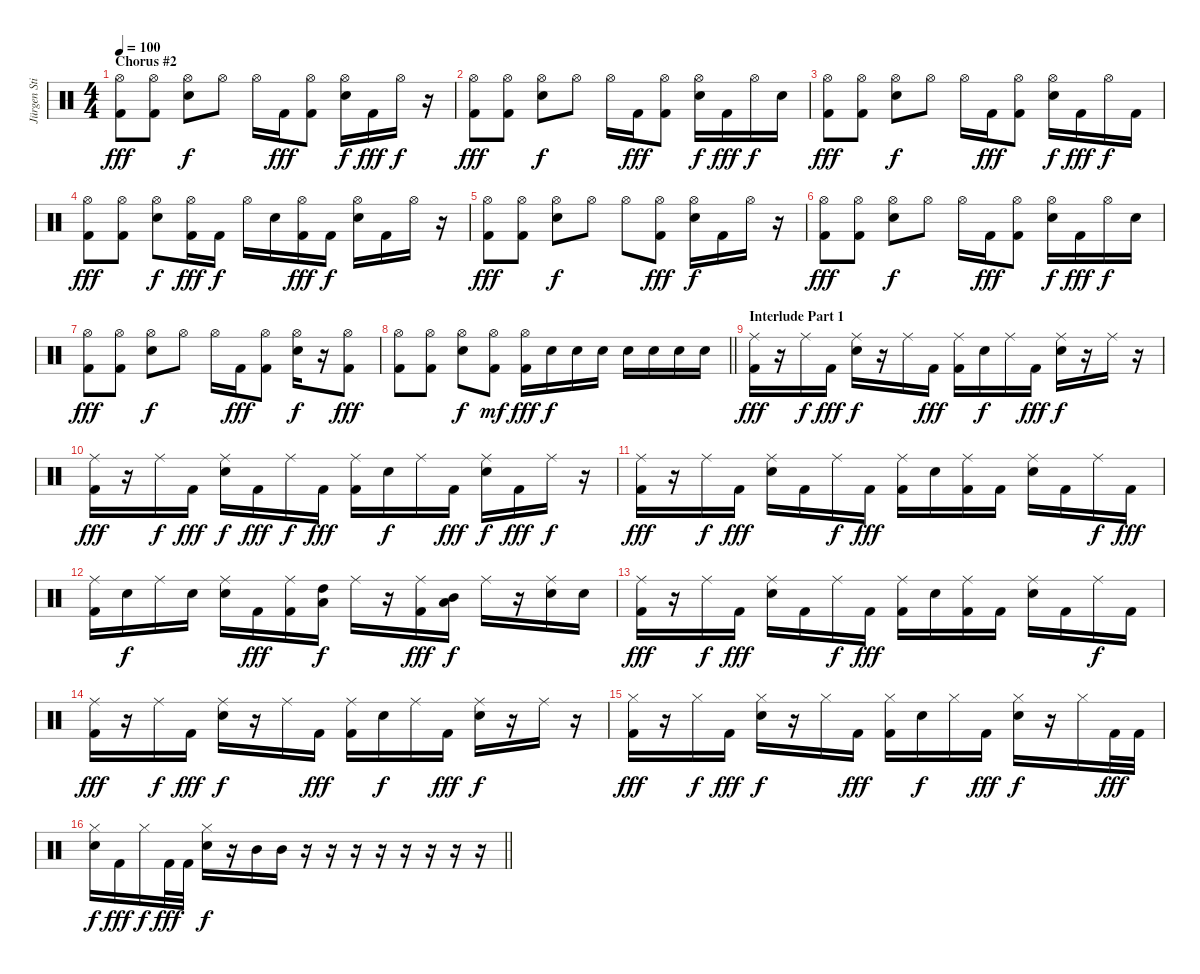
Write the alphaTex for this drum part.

\track ("Jürgen Stiehle" "Jürgen Sti") {instrument percussion}
\staff {score}
\articulation defaults
\ts (4 4)
\section ("" "Chorus #2")
\tempo 100
\clef neutral
\ks c
("Hi-Hat (open)" "Kick (hit) 2").8{dy fff} ("Hi-Hat (open)" "Kick (hit) 2").8 ("Hi-Hat (open)" "Electric Snare (hit)").8{dy f} "Hi-Hat (open)".8 "Hi-Hat (open)".16 "Kick (hit) 2".16{dy fff} ("Hi-Hat (open)" "Kick (hit) 2").8 ("Hi-Hat (open)" "Electric Snare (hit)").16{dy f} "Kick (hit) 2".16{dy fff} "Hi-Hat (open)".16{dy f} r.16 |
("Hi-Hat (open)" "Kick (hit) 2").8{dy fff} ("Hi-Hat (open)" "Kick (hit) 2").8 ("Hi-Hat (open)" "Electric Snare (hit)").8{dy f} "Hi-Hat (open)".8 "Hi-Hat (open)".16 "Kick (hit) 2".16{dy fff} ("Hi-Hat (open)" "Kick (hit) 2").8 ("Hi-Hat (open)" "Electric Snare (hit)").16{dy f} "Kick (hit) 2".16{dy fff} "Hi-Hat (open)".16{dy f} "Electric Snare (hit)".16 |
("Hi-Hat (open)" "Kick (hit) 2").8{dy fff} ("Hi-Hat (open)" "Kick (hit) 2").8 ("Hi-Hat (open)" "Electric Snare (hit)").8{dy f} "Hi-Hat (open)".8 "Hi-Hat (open)".16 "Kick (hit) 2".16{dy fff} ("Hi-Hat (open)" "Kick (hit) 2").8 ("Hi-Hat (open)" "Electric Snare (hit)").16{dy f} "Kick (hit) 2".16{dy fff} "Hi-Hat (open)".16{dy f} "Kick (hit) 2".16 |
("Hi-Hat (open)" "Kick (hit) 2").8{dy fff} ("Hi-Hat (open)" "Kick (hit) 2").8 ("Hi-Hat (open)" "Electric Snare (hit)").8{dy f} ("Hi-Hat (open)" "Kick (hit) 2").16{dy fff} "Kick (hit) 2".16{dy f} "Hi-Hat (open)".16 "Electric Snare (hit)".16 ("Hi-Hat (open)" "Kick (hit) 2").16{dy fff} "Kick (hit) 2".16{dy f} ("Hi-Hat (open)" "Electric Snare (hit)").16 "Kick (hit) 2".16 "Hi-Hat (open)".16 r.16 |
("Hi-Hat (open)" "Kick (hit) 2").8{dy fff} ("Hi-Hat (open)" "Kick (hit) 2").8 ("Hi-Hat (open)" "Electric Snare (hit)").8{dy f} "Hi-Hat (open)".8 "Hi-Hat (open)".8 ("Hi-Hat (open)" "Kick (hit) 2").8{dy fff} ("Hi-Hat (open)" "Electric Snare (hit)").16{dy f} "Kick (hit) 2".16 "Hi-Hat (open)".16 r.16 |
("Hi-Hat (open)" "Kick (hit) 2").8{dy fff} ("Hi-Hat (open)" "Kick (hit) 2").8 ("Hi-Hat (open)" "Electric Snare (hit)").8{dy f} "Hi-Hat (open)".8 "Hi-Hat (open)".16 "Kick (hit) 2".16{dy fff} ("Hi-Hat (open)" "Kick (hit) 2").8 ("Hi-Hat (open)" "Electric Snare (hit)").16{dy f} "Kick (hit) 2".16{dy fff} "Hi-Hat (open)".16{dy f} "Electric Snare (hit)".16 |
("Hi-Hat (open)" "Kick (hit) 2").8{dy fff} ("Hi-Hat (open)" "Kick (hit) 2").8 ("Hi-Hat (open)" "Electric Snare (hit)").8{dy f} "Hi-Hat (open)".8 "Hi-Hat (open)".16 "Kick (hit) 2".16{dy fff} ("Hi-Hat (open)" "Kick (hit) 2").8 ("Hi-Hat (open)" "Electric Snare (hit)").16{dy f} r.16 ("Hi-Hat (open)" "Kick (hit) 2").8{dy fff} |
\barLineRight lightlight
("Hi-Hat (open)" "Kick (hit) 2").8 ("Hi-Hat (open)" "Kick (hit) 2").8 ("Hi-Hat (open)" "Electric Snare (hit)").8{dy f} ("Hi-Hat (open)" "Kick (hit) 2").8{dy mf} ("Hi-Hat (open)" "Kick (hit) 2").16{dy fff} "Electric Snare (hit)".16{dy f} "Electric Snare (hit)".16 "Electric Snare (hit)".16 "Electric Snare (hit)".16 "Electric Snare (hit)".16 "Electric Snare (hit)".16 "Electric Snare (hit)".16 |
\section ("" "Interlude Part 1")
("Ride (middle)" "Kick (hit) 2").16{dy fff} r.16 "Ride (middle)".16{dy f} "Kick (hit) 2".16{dy fff} ("Ride (middle)" "Electric Snare (hit)").16{dy f} r.16 "Ride (middle)".16 "Kick (hit) 2".16{dy fff} ("Ride (middle)" "Kick (hit) 2").16 "Electric Snare (hit)".16{dy f} "Ride (middle)".16 "Kick (hit) 2".16{dy fff} ("Ride (middle)" "Electric Snare (hit)").16{dy f} r.16 "Ride (middle)".16 r.16 |
("Ride (middle)" "Kick (hit) 2").16{dy fff} r.16 "Ride (middle)".16{dy f} "Kick (hit) 2".16{dy fff} ("Ride (middle)" "Electric Snare (hit)").16{dy f} "Kick (hit) 2".16{dy fff} "Ride (middle)".16{dy f} "Kick (hit) 2".16{dy fff} ("Ride (middle)" "Kick (hit) 2").16 "Electric Snare (hit)".16{dy f} "Ride (middle)".16 "Kick (hit) 2".16{dy fff} ("Ride (middle)" "Electric Snare (hit)").16{dy f} "Kick (hit) 2".16{dy fff} "Ride (middle)".16{dy f} r.16 |
("Ride (middle)" "Kick (hit) 2").16{dy fff} r.16 "Ride (middle)".16{dy f} "Kick (hit) 2".16{dy fff} ("Ride (middle)" "Electric Snare (hit)").16 "Kick (hit) 2".16 "Ride (middle)".16{dy f} "Kick (hit) 2".16{dy fff} ("Ride (middle)" "Kick (hit) 2").16 "Electric Snare (hit)".16 ("Ride (middle)" "Kick (hit) 2").16 "Kick (hit) 2".16 ("Ride (middle)" "Electric Snare (hit)").16 "Kick (hit) 2".16 "Ride (middle)".16{dy f} "Kick (hit) 2".16{dy fff} |
("Ride (middle)" "Kick (hit) 2").16 "Electric Snare (hit)".16{dy f} "Ride (middle)".16 "Electric Snare (hit)".16 ("Ride (middle)" "Electric Snare (hit)").16 "Kick (hit) 2".16{dy fff} ("Ride (middle)" "Kick (hit) 2").16 ("High Tom (hit)" "Low Tom (hit)").16{dy f} "Ride (middle)".16 r.16 ("Ride (middle)" "Kick (hit) 2").16{dy fff} ("Mid Tom (hit)" "Low Tom (hit)").16{dy f} "Ride (middle)".16 r.16 ("Ride (middle)" "Electric Snare (hit)").16 "Electric Snare (hit)".16 |
("Ride (middle)" "Kick (hit) 2").16{dy fff} r.16 "Ride (middle)".16{dy f} "Kick (hit) 2".16{dy fff} ("Ride (middle)" "Electric Snare (hit)").16 "Kick (hit) 2".16 "Ride (middle)".16{dy f} "Kick (hit) 2".16{dy fff} ("Ride (middle)" "Kick (hit) 2").16 "Electric Snare (hit)".16 ("Ride (middle)" "Kick (hit) 2").16 "Kick (hit) 2".16 ("Ride (middle)" "Electric Snare (hit)").16 "Kick (hit) 2".16 "Ride (middle)".16{dy f} "Kick (hit) 2".16 |
("Ride (middle)" "Kick (hit) 2").16{dy fff} r.16 "Ride (middle)".16{dy f} "Kick (hit) 2".16{dy fff} ("Ride (middle)" "Electric Snare (hit)").16{dy f} r.16 "Ride (middle)".16 "Kick (hit) 2".16{dy fff} ("Ride (middle)" "Kick (hit) 2").16 "Electric Snare (hit)".16{dy f} "Ride (middle)".16 "Kick (hit) 2".16{dy fff} ("Ride (middle)" "Electric Snare (hit)").16{dy f} r.16 "Ride (middle)".16 r.16 |
("Hi-Hat (closed)" "Kick (hit) 2").16{dy fff} r.16 "Hi-Hat (closed)".16{dy f} "Kick (hit) 2".16{dy fff} ("Hi-Hat (closed)" "Electric Snare (hit)").16{dy f} r.16 "Hi-Hat (closed)".16 "Kick (hit) 2".16{dy fff} ("Hi-Hat (closed)" "Kick (hit) 2").16 "Electric Snare (hit)".16{dy f} "Hi-Hat (closed)".16 "Kick (hit) 2".16{dy fff} ("Hi-Hat (closed)" "Electric Snare (hit)").16{dy f} r.16 "Hi-Hat (closed)".16 "Kick (hit) 2".32{dy fff} "Kick (hit) 2".32 |
\barLineRight lightlight
("Hi-Hat (closed)" "Electric Snare (hit)").16{dy f} "Kick (hit) 2".16{dy fff} "Hi-Hat (closed)".16{dy f} "Kick (hit) 2".32{dy fff} "Kick (hit) 2".32 ("Hi-Hat (closed)" "Electric Snare (hit)").16{dy f} r.16 "Mid Tom (hit)".16 "Mid Tom (hit)".16 r.16 r.16 r.16 r.16 r.16 r.16 r.16 r.16
